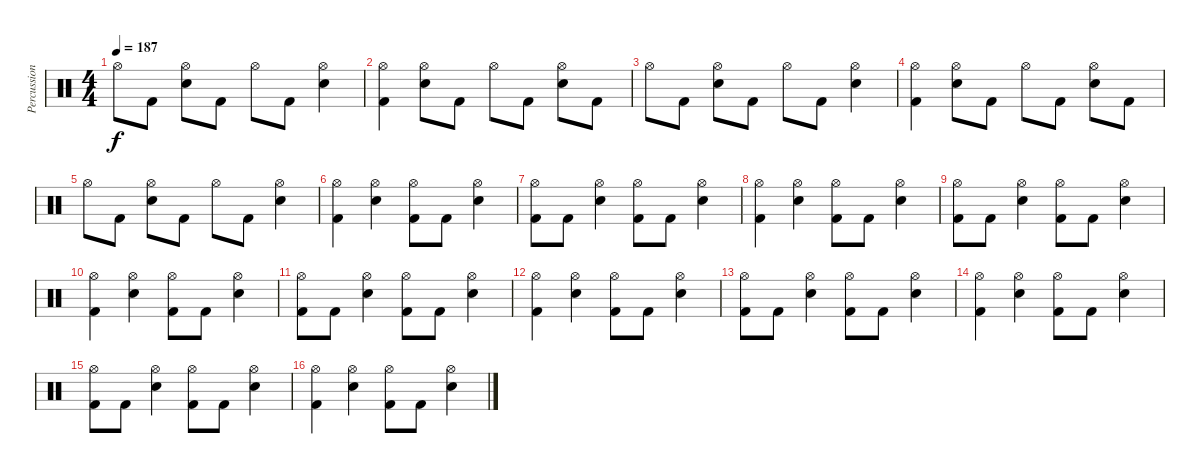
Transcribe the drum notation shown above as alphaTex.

\track ("Percussion" "Percussion") {instrument percussion}
\staff {score}
\articulation defaults
\ts (4 4)
\tempo 187
\clef neutral
\ks c "Hi-Hat (open)".8{dy f} "Kick (hit) 2".8
("Hi-Hat (open)" "Snare (hit) 2").8 "Kick (hit) 2".8 "Hi-Hat (open)".8 "Kick (hit) 2".8 ("Hi-Hat (open)" "Snare (hit) 2").4 |
("Hi-Hat (open)" "Kick (hit) 2").4 ("Hi-Hat (open)" "Snare (hit) 2").8 "Kick (hit) 2".8 "Hi-Hat (open)".8 "Kick (hit) 2".8 ("Hi-Hat (open)" "Snare (hit) 2").8 "Kick (hit) 2".8 |
"Hi-Hat (open)".8 "Kick (hit) 2".8 ("Hi-Hat (open)" "Snare (hit) 2").8 "Kick (hit) 2".8 "Hi-Hat (open)".8 "Kick (hit) 2".8 ("Hi-Hat (open)" "Snare (hit) 2").4 |
("Hi-Hat (open)" "Kick (hit) 2").4 ("Hi-Hat (open)" "Snare (hit) 2").8 "Kick (hit) 2".8 "Hi-Hat (open)".8 "Kick (hit) 2".8 ("Hi-Hat (open)" "Snare (hit) 2").8 "Kick (hit) 2".8 |
"Hi-Hat (open)".8 "Kick (hit) 2".8 ("Hi-Hat (open)" "Snare (hit) 2").8 "Kick (hit) 2".8 "Hi-Hat (open)".8 "Kick (hit) 2".8 ("Hi-Hat (open)" "Snare (hit) 2").4 |
("Hi-Hat (open)" "Kick (hit) 2").4 ("Hi-Hat (open)" "Snare (hit) 2").4 ("Hi-Hat (open)" "Kick (hit) 2").8 "Kick (hit) 2".8 ("Hi-Hat (open)" "Snare (hit) 2").4 |
("Hi-Hat (open)" "Kick (hit) 2").8 "Kick (hit) 2".8 ("Hi-Hat (open)" "Snare (hit) 2").4 ("Hi-Hat (open)" "Kick (hit) 2").8 "Kick (hit) 2".8 ("Hi-Hat (open)" "Snare (hit) 2").4 |
("Hi-Hat (open)" "Kick (hit) 2").4 ("Hi-Hat (open)" "Snare (hit) 2").4 ("Hi-Hat (open)" "Kick (hit) 2").8 "Kick (hit) 2".8 ("Hi-Hat (open)" "Snare (hit) 2").4 |
("Hi-Hat (open)" "Kick (hit) 2").8 "Kick (hit) 2".8 ("Hi-Hat (open)" "Snare (hit) 2").4 ("Hi-Hat (open)" "Kick (hit) 2").8 "Kick (hit) 2".8 ("Hi-Hat (open)" "Snare (hit) 2").4 |
("Hi-Hat (open)" "Kick (hit) 2").4 ("Hi-Hat (open)" "Snare (hit) 2").4 ("Hi-Hat (open)" "Kick (hit) 2").8 "Kick (hit) 2".8 ("Hi-Hat (open)" "Snare (hit) 2").4 |
("Hi-Hat (open)" "Kick (hit) 2").8 "Kick (hit) 2".8 ("Hi-Hat (open)" "Snare (hit) 2").4 ("Hi-Hat (open)" "Kick (hit) 2").8 "Kick (hit) 2".8 ("Hi-Hat (open)" "Snare (hit) 2").4 |
("Hi-Hat (open)" "Kick (hit) 2").4 ("Hi-Hat (open)" "Snare (hit) 2").4 ("Hi-Hat (open)" "Kick (hit) 2").8 "Kick (hit) 2".8 ("Hi-Hat (open)" "Snare (hit) 2").4 |
("Hi-Hat (open)" "Kick (hit) 2").8 "Kick (hit) 2".8 ("Hi-Hat (open)" "Snare (hit) 2").4 ("Hi-Hat (open)" "Kick (hit) 2").8 "Kick (hit) 2".8 ("Hi-Hat (open)" "Snare (hit) 2").4 |
("Hi-Hat (open)" "Kick (hit) 2").4 ("Hi-Hat (open)" "Snare (hit) 2").4 ("Hi-Hat (open)" "Kick (hit) 2").8 "Kick (hit) 2".8 ("Hi-Hat (open)" "Snare (hit) 2").4 |
("Hi-Hat (open)" "Kick (hit) 2").8 "Kick (hit) 2".8 ("Hi-Hat (open)" "Snare (hit) 2").4 ("Hi-Hat (open)" "Kick (hit) 2").8 "Kick (hit) 2".8 ("Hi-Hat (open)" "Snare (hit) 2").4 |
("Hi-Hat (open)" "Kick (hit) 2").4 ("Hi-Hat (open)" "Snare (hit) 2").4 ("Hi-Hat (open)" "Kick (hit) 2").8 "Kick (hit) 2".8 ("Hi-Hat (open)" "Snare (hit) 2").4
